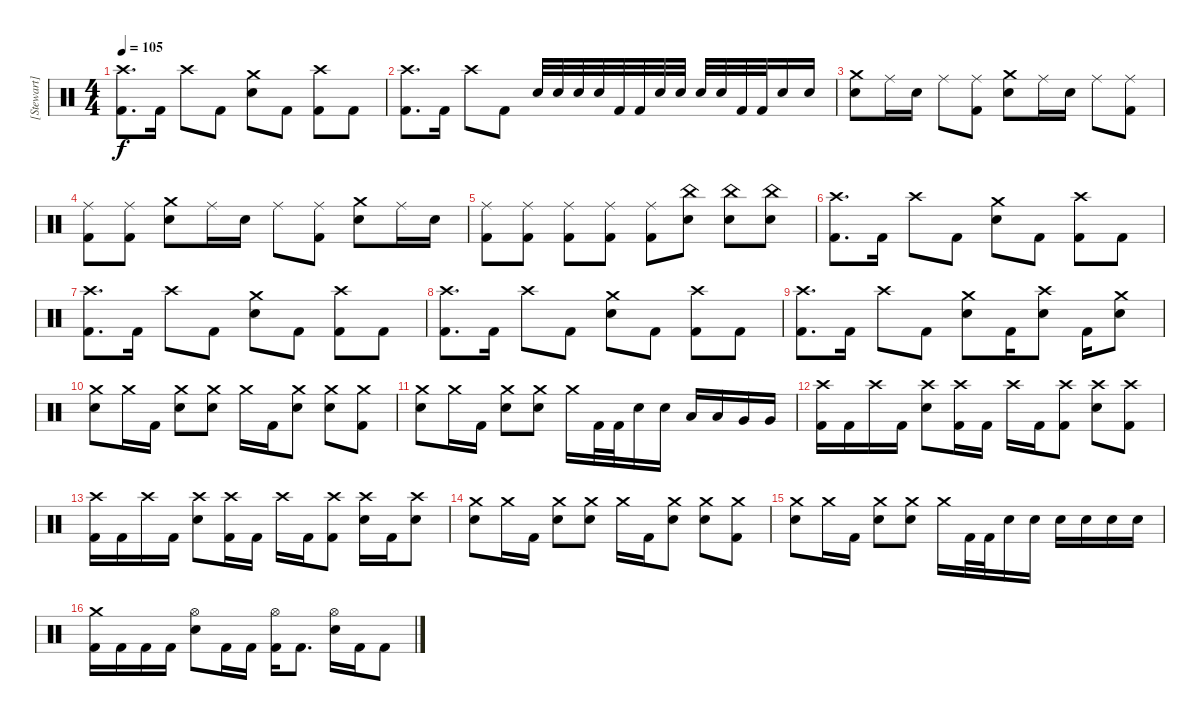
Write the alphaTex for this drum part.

\track ("[Stewart]" "[Stewart]") {instrument percussion}
\staff {score}
\articulation defaults
\ts (4 4)
\tempo 105
\clef neutral
\ks c
("Crash high (hit)" "Kick (hit) 2").8{d dy f} "Kick (hit) 2".16 "Crash high (hit)".8 "Kick (hit) 2".8 ("Crash medium (hit)" "Electric Snare (hit)").8 "Kick (hit) 2".8 ("Crash high (hit)" "Kick (hit) 2").8 "Kick (hit) 2".8 |
("Crash high (hit)" "Kick (hit) 2").8{d} "Kick (hit) 2".16 "Crash high (hit)".8 "Kick (hit) 2".8 "Electric Snare (hit)".32 "Electric Snare (hit)".32 "Electric Snare (hit)".32 "Electric Snare (hit)".32 "Kick (hit) 2".32 "Kick (hit) 2".32 "Electric Snare (hit)".32 "Electric Snare (hit)".32 "Electric Snare (hit)".32 "Electric Snare (hit)".32 "Kick (hit) 2".32 "Kick (hit) 2".32 "Electric Snare (hit)".16 "Electric Snare (hit)".16 |
("Crash medium (hit)" "Electric Snare (hit)").8 "Ride (middle)".16 "Electric Snare (hit)".16 "Ride (middle)".8 ("Ride (middle)" "Kick (hit) 2").8 ("Crash medium (hit)" "Electric Snare (hit)").8 "Ride (middle)".16 "Electric Snare (hit)".16 "Ride (middle)".8 ("Ride (middle)" "Kick (hit) 2").8 |
("Ride (middle)" "Kick (hit) 2").8 ("Ride (middle)" "Kick (hit) 2").8 ("Crash medium (hit)" "Electric Snare (hit)").8 "Ride (middle)".16 "Electric Snare (hit)".16 "Ride (middle)".8 ("Ride (middle)" "Kick (hit) 2").8 ("Crash medium (hit)" "Electric Snare (hit)").8 "Ride (middle)".16 "Electric Snare (hit)".16 |
("Ride (middle)" "Kick (hit) 2").8 ("Ride (middle)" "Kick (hit) 2").8 ("Ride (middle)" "Kick (hit) 2").8 ("Ride (middle)" "Kick (hit) 2").8 ("Ride (middle)" "Kick (hit) 2").8 ("China (hit)" "Electric Snare (hit)").8 ("China (hit)" "Electric Snare (hit)").8 ("China (hit)" "Electric Snare (hit)").8 |
("Crash high (hit)" "Kick (hit) 2").8{d} "Kick (hit) 2".16 "Crash high (hit)".8 "Kick (hit) 2".8 ("Crash medium (hit)" "Electric Snare (hit)").8 "Kick (hit) 2".8 ("Crash high (hit)" "Kick (hit) 2").8 "Kick (hit) 2".8 |
("Crash high (hit)" "Kick (hit) 2").8{d} "Kick (hit) 2".16 "Crash high (hit)".8 "Kick (hit) 2".8 ("Crash medium (hit)" "Electric Snare (hit)").8 "Kick (hit) 2".8 ("Crash high (hit)" "Kick (hit) 2").8 "Kick (hit) 2".8 |
("Crash high (hit)" "Kick (hit) 2").8{d} "Kick (hit) 2".16 "Crash high (hit)".8 "Kick (hit) 2".8 ("Crash medium (hit)" "Electric Snare (hit)").8 "Kick (hit) 2".8 ("Crash high (hit)" "Kick (hit) 2").8 "Kick (hit) 2".8 |
("Crash high (hit)" "Kick (hit) 2").8{d} "Kick (hit) 2".16 "Crash high (hit)".8 "Kick (hit) 2".8 ("Crash medium (hit)" "Electric Snare (hit)").8 "Kick (hit) 2".16 ("Crash high (hit)" "Electric Snare (hit)").8 "Kick (hit) 2".16 ("Crash medium (hit)" "Electric Snare (hit)").8 |
("Crash medium (hit)" "Electric Snare (hit)").8 "Crash medium (hit)".16 "Kick (hit) 2".16 ("Crash medium (hit)" "Electric Snare (hit)").8 ("Crash medium (hit)" "Electric Snare (hit)").8 "Crash medium (hit)".16 "Kick (hit) 2".16 ("Crash medium (hit)" "Electric Snare (hit)").8 ("Crash medium (hit)" "Electric Snare (hit)").8 ("Crash medium (hit)" "Kick (hit) 2").8 |
("Crash medium (hit)" "Electric Snare (hit)").8 "Crash medium (hit)".16 "Kick (hit) 2".16 ("Crash medium (hit)" "Electric Snare (hit)").8 ("Crash medium (hit)" "Electric Snare (hit)").8 "Crash medium (hit)".16 "Kick (hit) 2".32 "Kick (hit) 2".32 "Electric Snare (hit)".16 "Electric Snare (hit)".16 "Low Tom (hit)".16 "Low Tom (hit)".16 "Very Low Tom (hit)".16 "Very Low Tom (hit)".16 |
("Crash high (hit)" "Kick (hit) 2").16 "Kick (hit) 2".16 "Crash high (hit)".16 "Kick (hit) 2".16 ("Crash high (hit)" "Electric Snare (hit)").8 ("Crash high (hit)" "Kick (hit) 2").16 "Kick (hit) 2".16 "Crash high (hit)".16 "Kick (hit) 2".16 ("Crash high (hit)" "Kick (hit) 2").8 ("Crash high (hit)" "Electric Snare (hit)").8 ("Crash high (hit)" "Kick (hit) 2").8 |
("Crash high (hit)" "Kick (hit) 2").16 "Kick (hit) 2".16 "Crash high (hit)".16 "Kick (hit) 2".16 ("Crash high (hit)" "Electric Snare (hit)").8 ("Crash high (hit)" "Kick (hit) 2").16 "Kick (hit) 2".16 "Crash high (hit)".16 "Kick (hit) 2".16 ("Crash high (hit)" "Kick (hit) 2").8 ("Crash high (hit)" "Electric Snare (hit)").16 "Kick (hit) 2".16 ("Crash high (hit)" "Electric Snare (hit)").8 |
("Crash medium (hit)" "Electric Snare (hit)").8 "Crash medium (hit)".16 "Kick (hit) 2".16 ("Crash medium (hit)" "Electric Snare (hit)").8 ("Crash medium (hit)" "Electric Snare (hit)").8 "Crash medium (hit)".16 "Kick (hit) 2".16 ("Crash medium (hit)" "Electric Snare (hit)").8 ("Crash medium (hit)" "Electric Snare (hit)").8 ("Crash medium (hit)" "Kick (hit) 2").8 |
("Crash medium (hit)" "Electric Snare (hit)").8 "Crash medium (hit)".16 "Kick (hit) 2".16 ("Crash medium (hit)" "Electric Snare (hit)").8 ("Crash medium (hit)" "Electric Snare (hit)").8 "Crash medium (hit)".16 "Kick (hit) 2".32 "Kick (hit) 2".32 "Electric Snare (hit)".16 "Electric Snare (hit)".16 "Electric Snare (hit)".16 "Electric Snare (hit)".16 "Electric Snare (hit)".16 "Electric Snare (hit)".16 |
("Crash medium (hit)" "Kick (hit) 2").16 "Kick (hit) 2".16 "Kick (hit) 2".16 "Kick (hit) 2".16 ("Hi-Hat (open)" "Electric Snare (hit)").8 "Kick (hit) 2".16 "Kick (hit) 2".16 ("Hi-Hat (open)" "Kick (hit) 2").16 "Kick (hit) 2".8{d} ("Hi-Hat (open)" "Electric Snare (hit)").16 "Kick (hit) 2".16 "Kick (hit) 2".8
